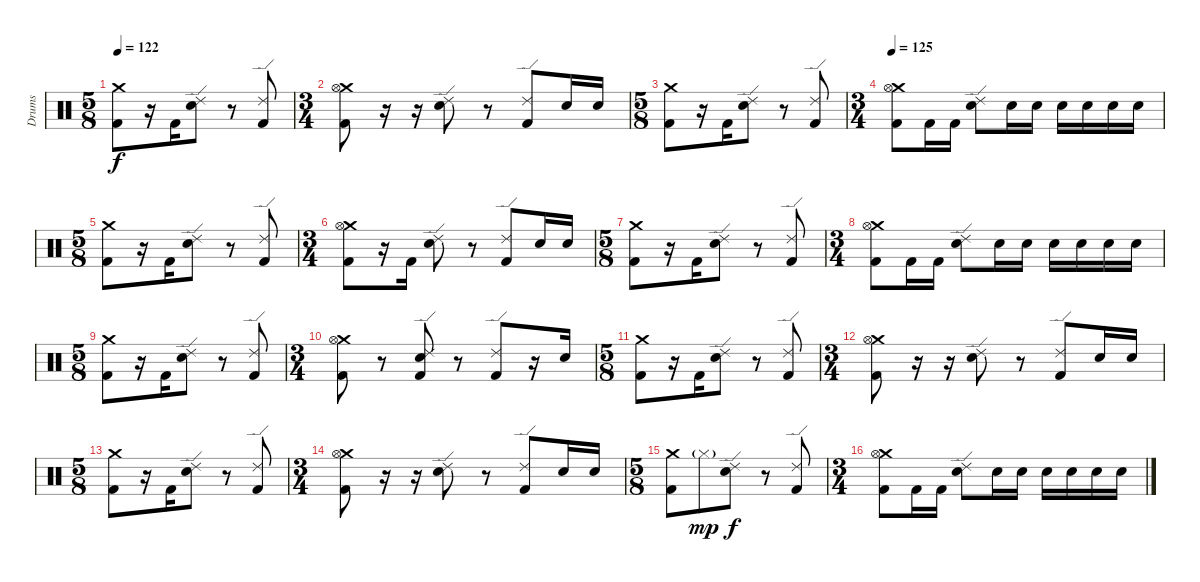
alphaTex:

\track ("Drums" "Drums") {instrument percussion}
\staff {score}
\articulation defaults
\ts (5 8)
\tempo 122
\clef neutral
\ks c
("Crash medium (hit)" "Kick (hit) 2").8{dy f} r.16 "Kick (hit) 2".16 ("Ride (edge) 2" "Electric Snare (hit)").8 r.8 ("Ride (edge) 2" "Kick (hit) 2").8 |
\ts (3 4)
("Crash medium (hit)" "Hi-Hat (open)" "Kick (hit) 2").8 r.16 r.16 ("Ride (edge) 2" "Electric Snare (hit)").8 r.8 ("Ride (edge) 2" "Kick (hit) 2").8 "Electric Snare (hit)".16 "Electric Snare (hit)".16 |
\ts (5 8)
("Crash medium (hit)" "Kick (hit) 2").8 r.16 "Kick (hit) 2".16 ("Ride (edge) 2" "Electric Snare (hit)").8 r.8 ("Ride (edge) 2" "Kick (hit) 2").8 |
\ts (3 4)
\tempo 125
("Crash medium (hit)" "Hi-Hat (open)" "Kick (hit) 2").8 "Kick (hit) 2".16 "Kick (hit) 2".16 ("Ride (edge) 2" "Electric Snare (hit)").8 "Electric Snare (hit)".16 "Electric Snare (hit)".16 "Electric Snare (hit)".16 "Electric Snare (hit)".16 "Electric Snare (hit)".16 "Electric Snare (hit)".16 |
\ts (5 8)
("Crash medium (hit)" "Kick (hit) 2").8 r.16 "Kick (hit) 2".16 ("Ride (edge) 2" "Electric Snare (hit)").8 r.8 ("Ride (edge) 2" "Kick (hit) 2").8 |
\ts (3 4)
("Crash medium (hit)" "Hi-Hat (open)" "Kick (hit) 2").8 r.16 "Kick (hit) 2".16 ("Ride (edge) 2" "Electric Snare (hit)").8 r.8 ("Ride (edge) 2" "Kick (hit) 2").8 "Electric Snare (hit)".16 "Electric Snare (hit)".16 |
\ts (5 8)
("Crash medium (hit)" "Kick (hit) 2").8 r.16 "Kick (hit) 2".16 ("Ride (edge) 2" "Electric Snare (hit)").8 r.8 ("Ride (edge) 2" "Kick (hit) 2").8 |
\ts (3 4)
("Crash medium (hit)" "Hi-Hat (open)" "Kick (hit) 2").8 "Kick (hit) 2".16 "Kick (hit) 2".16 ("Ride (edge) 2" "Electric Snare (hit)").8 "Electric Snare (hit)".16 "Electric Snare (hit)".16 "Electric Snare (hit)".16 "Electric Snare (hit)".16 "Electric Snare (hit)".16 "Electric Snare (hit)".16 |
\ts (5 8)
("Crash medium (hit)" "Kick (hit) 2").8 r.16 "Kick (hit) 2".16 ("Ride (edge) 2" "Electric Snare (hit)").8 r.8 ("Ride (edge) 2" "Kick (hit) 2").8 |
\ts (3 4)
("Crash medium (hit)" "Hi-Hat (open)" "Kick (hit) 2").8 r.8 ("Ride (edge) 2" "Electric Snare (hit)" "Kick (hit) 2").8 r.8 ("Ride (edge) 2" "Kick (hit) 2").8 r.16 "Electric Snare (hit)".16 |
\ts (5 8)
("Crash medium (hit)" "Kick (hit) 2").8 r.16 "Kick (hit) 2".16 ("Ride (edge) 2" "Electric Snare (hit)").8 r.8 ("Ride (edge) 2" "Kick (hit) 2").8 |
\ts (3 4)
("Crash medium (hit)" "Hi-Hat (open)" "Kick (hit) 2").8 r.16 r.16 ("Ride (edge) 2" "Electric Snare (hit)").8 r.8 ("Ride (edge) 2" "Kick (hit) 2").8 "Electric Snare (hit)".16 "Electric Snare (hit)".16 |
\ts (5 8)
("Crash medium (hit)" "Kick (hit) 2").8 r.16 "Kick (hit) 2".16 ("Ride (edge) 2" "Electric Snare (hit)").8 r.8 ("Ride (edge) 2" "Kick (hit) 2").8 |
\ts (3 4)
("Crash medium (hit)" "Hi-Hat (open)" "Kick (hit) 2").8 r.16 r.16 ("Ride (edge) 2" "Electric Snare (hit)").8 r.8 ("Ride (edge) 2" "Kick (hit) 2").8 "Electric Snare (hit)".16 "Electric Snare (hit)".16 |
\ts (5 8)
("Crash medium (hit)" "Kick (hit) 2").8 "Hi-Hat (closed)"{g}.8{dy mp} ("Ride (edge) 2" "Electric Snare (hit)").8{dy f} r.8 ("Ride (edge) 2" "Kick (hit) 2").8 |
\ts (3 4)
("Crash medium (hit)" "Hi-Hat (open)" "Kick (hit) 2").8 "Kick (hit) 2".16 "Kick (hit) 2".16 ("Ride (edge) 2" "Electric Snare (hit)").8 "Electric Snare (hit)".16 "Electric Snare (hit)".16 "Electric Snare (hit)".16 "Electric Snare (hit)".16 "Electric Snare (hit)".16 "Electric Snare (hit)".16
